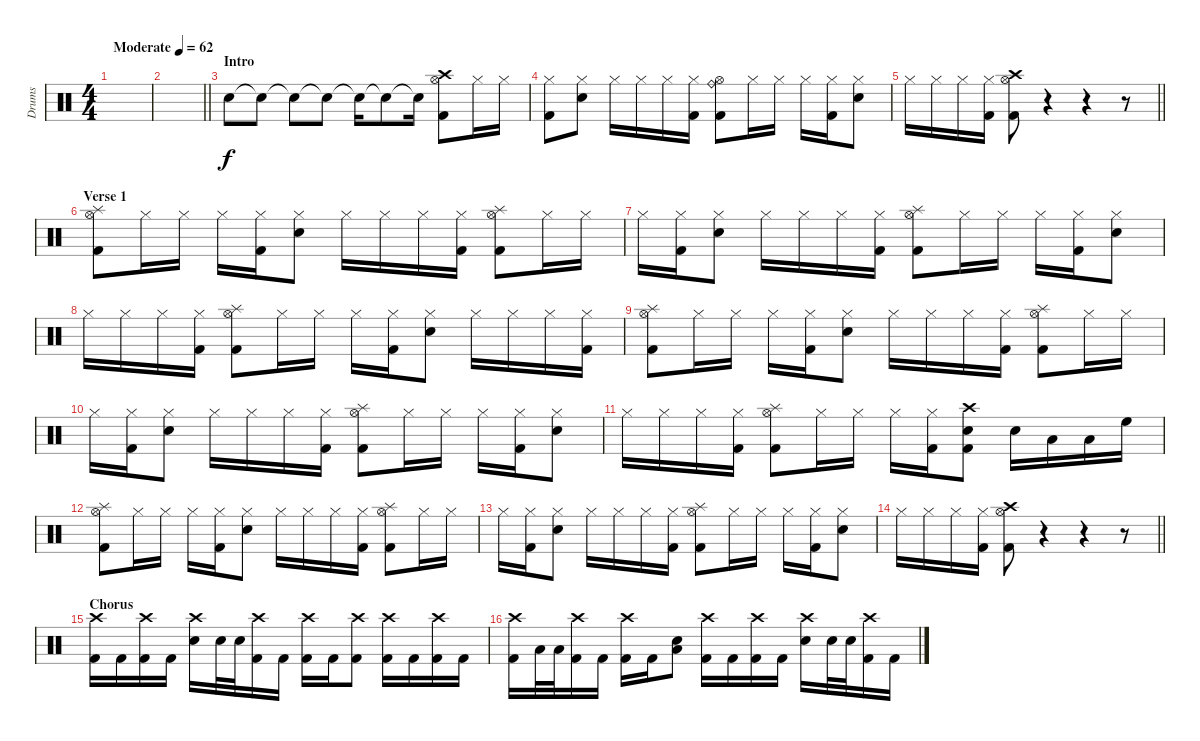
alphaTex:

\track ("Drums" "Drums") {instrument percussion}
\staff {score}
\articulation defaults
\ts (4 4)
\tempo (62 "Moderate")
\clef neutral
\ks c
|
\barLineRight lightlight
|
\section ("" "Intro")
"Snare (hit)".8 "Snare (hit)"{t}.8 "Snare (hit)"{t}.8 "Snare (hit)"{t}.8 "Snare (hit)"{t}.16 "Snare (hit)"{t}.8 "Snare (hit)"{t}.16 ("Hi-Hat (open)" "Kick (hit) 2" "Crash high (hit)").8 "Hi-Hat (closed)".16 "Hi-Hat (closed)".16 |
("Hi-Hat (closed)" "Kick (hit) 2").8 ("Hi-Hat (closed)" "Electric Snare (hit)").8 "Hi-Hat (closed)".16 "Hi-Hat (closed)".16 "Hi-Hat (closed)".16 ("Hi-Hat (closed)" "Kick (hit) 2").16 ("Hi-Hat (open)" "Kick (hit) 2" "Ride (bell)").8 "Hi-Hat (closed)".16 "Hi-Hat (closed)".16 "Hi-Hat (closed)".16 ("Hi-Hat (closed)" "Kick (hit) 2").16 ("Hi-Hat (closed)" "Electric Snare (hit)").8 |
\barLineRight lightlight "Hi-Hat (closed)".16 "Hi-Hat (closed)".16 "Hi-Hat (closed)".16
("Hi-Hat (closed)" "Kick (hit) 2").16 ("Hi-Hat (open)" "Kick (hit) 2" "Crash high (hit)").8 r.4 r.4 r.8 |
\section ("" "Verse 1")
("Hi-Hat (open)" "Kick (hit) 2" "Splash (hit)").8 "Hi-Hat (closed)".16 "Hi-Hat (closed)".16 "Hi-Hat (closed)".16 ("Hi-Hat (closed)" "Kick (hit) 2").16 ("Hi-Hat (closed)" "Electric Snare (hit)").8 "Hi-Hat (closed)".16 "Hi-Hat (closed)".16 "Hi-Hat (closed)".16 ("Hi-Hat (closed)" "Kick (hit) 2").16 ("Hi-Hat (open)" "Kick (hit) 2" "Splash (hit)").8 "Hi-Hat (closed)".16 "Hi-Hat (closed)".16 |
"Hi-Hat (closed)".16 ("Hi-Hat (closed)" "Kick (hit) 2").16 ("Hi-Hat (closed)" "Electric Snare (hit)").8 "Hi-Hat (closed)".16 "Hi-Hat (closed)".16 "Hi-Hat (closed)".16 ("Hi-Hat (closed)" "Kick (hit) 2").16 ("Hi-Hat (open)" "Kick (hit) 2" "Splash (hit)").8 "Hi-Hat (closed)".16 "Hi-Hat (closed)".16 "Hi-Hat (closed)".16 ("Hi-Hat (closed)" "Kick (hit) 2").16 ("Hi-Hat (closed)" "Electric Snare (hit)").8 |
"Hi-Hat (closed)".16 "Hi-Hat (closed)".16 "Hi-Hat (closed)".16 ("Hi-Hat (closed)" "Kick (hit) 2").16 ("Hi-Hat (open)" "Kick (hit) 2" "Splash (hit)").8 "Hi-Hat (closed)".16 "Hi-Hat (closed)".16 "Hi-Hat (closed)".16 ("Hi-Hat (closed)" "Kick (hit) 2").16 ("Hi-Hat (closed)" "Electric Snare (hit)").8 "Hi-Hat (closed)".16 "Hi-Hat (closed)".16 "Hi-Hat (closed)".16 ("Hi-Hat (closed)" "Kick (hit) 2").16 |
("Hi-Hat (open)" "Kick (hit) 2" "Splash (hit)").8 "Hi-Hat (closed)".16 "Hi-Hat (closed)".16 "Hi-Hat (closed)".16 ("Hi-Hat (closed)" "Kick (hit) 2").16 ("Hi-Hat (closed)" "Electric Snare (hit)").8 "Hi-Hat (closed)".16 "Hi-Hat (closed)".16 "Hi-Hat (closed)".16 ("Hi-Hat (closed)" "Kick (hit) 2").16 ("Hi-Hat (open)" "Kick (hit) 2" "Splash (hit)").8 "Hi-Hat (closed)".16 "Hi-Hat (closed)".16 |
"Hi-Hat (closed)".16 ("Hi-Hat (closed)" "Kick (hit) 2").16 ("Hi-Hat (closed)" "Electric Snare (hit)").8 "Hi-Hat (closed)".16 "Hi-Hat (closed)".16 "Hi-Hat (closed)".16 ("Hi-Hat (closed)" "Kick (hit) 2").16 ("Hi-Hat (open)" "Kick (hit) 2" "Splash (hit)").8 "Hi-Hat (closed)".16 "Hi-Hat (closed)".16 "Hi-Hat (closed)".16 ("Hi-Hat (closed)" "Kick (hit) 2").16 ("Hi-Hat (closed)" "Electric Snare (hit)").8 |
"Hi-Hat (closed)".16 "Hi-Hat (closed)".16 "Hi-Hat (closed)".16 ("Hi-Hat (closed)" "Kick (hit) 2").16 ("Hi-Hat (open)" "Kick (hit) 2" "Splash (hit)").8 "Hi-Hat (closed)".16 "Hi-Hat (closed)".16 "Hi-Hat (closed)".16 ("Hi-Hat (closed)" "Kick (hit) 2").16 ("Electric Snare (hit)" "Kick (hit) 2" "Crash high (hit)").8 "Electric Snare (hit)".16 "Low Tom (hit)".16 "Low Tom (hit)".16 "High Floor Tom (hit)".16 |
("Hi-Hat (open)" "Kick (hit) 2" "Splash (hit)").8 "Hi-Hat (closed)".16 "Hi-Hat (closed)".16 "Hi-Hat (closed)".16 ("Hi-Hat (closed)" "Kick (hit) 2").16 ("Hi-Hat (closed)" "Electric Snare (hit)").8 "Hi-Hat (closed)".16 "Hi-Hat (closed)".16 "Hi-Hat (closed)".16 ("Hi-Hat (closed)" "Kick (hit) 2").16 ("Hi-Hat (open)" "Kick (hit) 2" "Splash (hit)").8 "Hi-Hat (closed)".16 "Hi-Hat (closed)".16 |
"Hi-Hat (closed)".16 ("Hi-Hat (closed)" "Kick (hit) 2").16 ("Hi-Hat (closed)" "Electric Snare (hit)").8 "Hi-Hat (closed)".16 "Hi-Hat (closed)".16 "Hi-Hat (closed)".16 ("Hi-Hat (closed)" "Kick (hit) 2").16 ("Hi-Hat (open)" "Kick (hit) 2" "Splash (hit)").8 "Hi-Hat (closed)".16 "Hi-Hat (closed)".16 "Hi-Hat (closed)".16 ("Hi-Hat (closed)" "Kick (hit) 2").16 ("Hi-Hat (closed)" "Electric Snare (hit)").8 |
\barLineRight lightlight "Hi-Hat (closed)".16 "Hi-Hat (closed)".16 "Hi-Hat (closed)".16
("Hi-Hat (closed)" "Kick (hit) 2").16 ("Hi-Hat (open)" "Kick (hit) 2" "Crash high (hit)").8 r.4 r.4 r.8 |
\section ("" "Chorus")
("Kick (hit) 2" "Crash high (hit)").16 "Kick (hit) 2".16 ("Kick (hit) 2" "Crash high (hit)").16 "Kick (hit) 2".16 ("Electric Snare (hit)" "Crash high (hit)").16 "Electric Snare (hit)".32 "Electric Snare (hit)".32 ("Kick (hit) 2" "Crash high (hit)").16 "Kick (hit) 2".16 ("Kick (hit) 2" "Crash high (hit)").16 "Kick (hit) 2".16 ("Kick (hit) 2" "Crash high (hit)").8 ("Kick (hit) 2" "Crash high (hit)").16 "Kick (hit) 2".16 ("Kick (hit) 2" "Crash high (hit)").16 "Kick (hit) 2".16 |
("Kick (hit) 2" "Crash high (hit)").16 "Low Tom (hit)".32 "Low Tom (hit)".32 ("Kick (hit) 2" "Crash high (hit)").16 "Kick (hit) 2".16 ("Kick (hit) 2" "Crash high (hit)").16 "Kick (hit) 2".16 ("Electric Snare (hit)" "Low Tom (hit)").8 ("Kick (hit) 2" "Crash high (hit)").16 "Kick (hit) 2".16 ("Kick (hit) 2" "Crash high (hit)").16 "Kick (hit) 2".16 ("Electric Snare (hit)" "Crash high (hit)").16 "Electric Snare (hit)".32 "Electric Snare (hit)".32 ("Kick (hit) 2" "Crash high (hit)").16 "Kick (hit) 2".16
